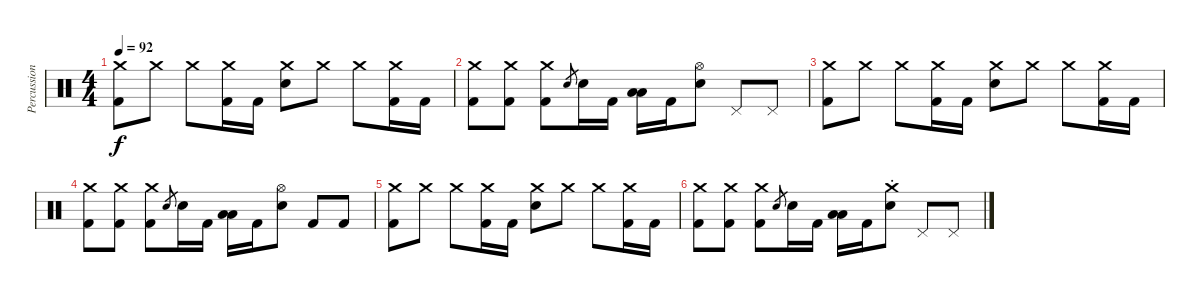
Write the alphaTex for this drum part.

\track ("Percussion" "Percussion") {instrument percussion}
\staff {score}
\articulation defaults
\ts (4 4)
\tempo 92
\clef neutral
\ks c
("Crash medium (hit)" "Kick (hit) 2").8{dy f} "Crash medium (hit)".8 "Crash medium (hit)".8 ("Crash medium (hit)" "Kick (hit) 2").16 "Kick (hit) 2".16 ("Crash medium (hit)" "Electric Snare (hit)").8 "Crash medium (hit)".8 "Crash medium (hit)".8 ("Crash medium (hit)" "Kick (hit) 2").16 "Kick (hit) 2".16 |
("Crash medium (hit)" "Kick (hit) 2").8 ("Crash medium (hit)" "Kick (hit) 2").8 ("Crash medium (hit)" "Kick (hit) 2").8 "Electric Snare (hit)".8{gr} "Electric Snare (hit)".16 "Kick (hit) 2".16 ("Low Tom (hit)" "Low Floor Tom (hit)").16 "Kick (hit) 2".16 ("Hi-Hat (open)" "Electric Snare (hit)").8 "Pedal Hi-Hat (hit)".8 "Pedal Hi-Hat (hit)".8 |
("Crash medium (hit)" "Kick (hit) 2").8 "Crash medium (hit)".8 "Crash medium (hit)".8 ("Crash medium (hit)" "Kick (hit) 2").16 "Kick (hit) 2".16 ("Crash medium (hit)" "Electric Snare (hit)").8 "Crash medium (hit)".8 "Crash medium (hit)".8 ("Crash medium (hit)" "Kick (hit) 2").16 "Kick (hit) 2".16 |
("Crash medium (hit)" "Kick (hit) 2").8 ("Crash medium (hit)" "Kick (hit) 2").8 ("Crash medium (hit)" "Kick (hit) 2").8 "Electric Snare (hit)".8{gr} "Electric Snare (hit)".16 "Kick (hit) 2".16 ("Low Tom (hit)" "Low Floor Tom (hit)").16 "Kick (hit) 2".16 ("Hi-Hat (open)" "Electric Snare (hit)").8 "Kick (hit) 2".8 "Kick (hit) 2".8 |
("Crash medium (hit)" "Kick (hit) 2").8 "Crash medium (hit)".8 "Crash medium (hit)".8 ("Crash medium (hit)" "Kick (hit) 2").16 "Kick (hit) 2".16 ("Crash medium (hit)" "Electric Snare (hit)").8 "Crash medium (hit)".8 "Crash medium (hit)".8 ("Crash medium (hit)" "Kick (hit) 2").16 "Kick (hit) 2".16 |
("Crash medium (hit)" "Kick (hit) 2").8 ("Crash medium (hit)" "Kick (hit) 2").8 ("Crash medium (hit)" "Kick (hit) 2").8 "Electric Snare (hit)".8{gr} "Electric Snare (hit)".16 "Kick (hit) 2".16 ("Low Tom (hit)" "Low Floor Tom (hit)").16 "Kick (hit) 2".16 ("Crash medium (hit)"{st} "Electric Snare (hit)").8 "Pedal Hi-Hat (hit)".8 "Pedal Hi-Hat (hit)".8
